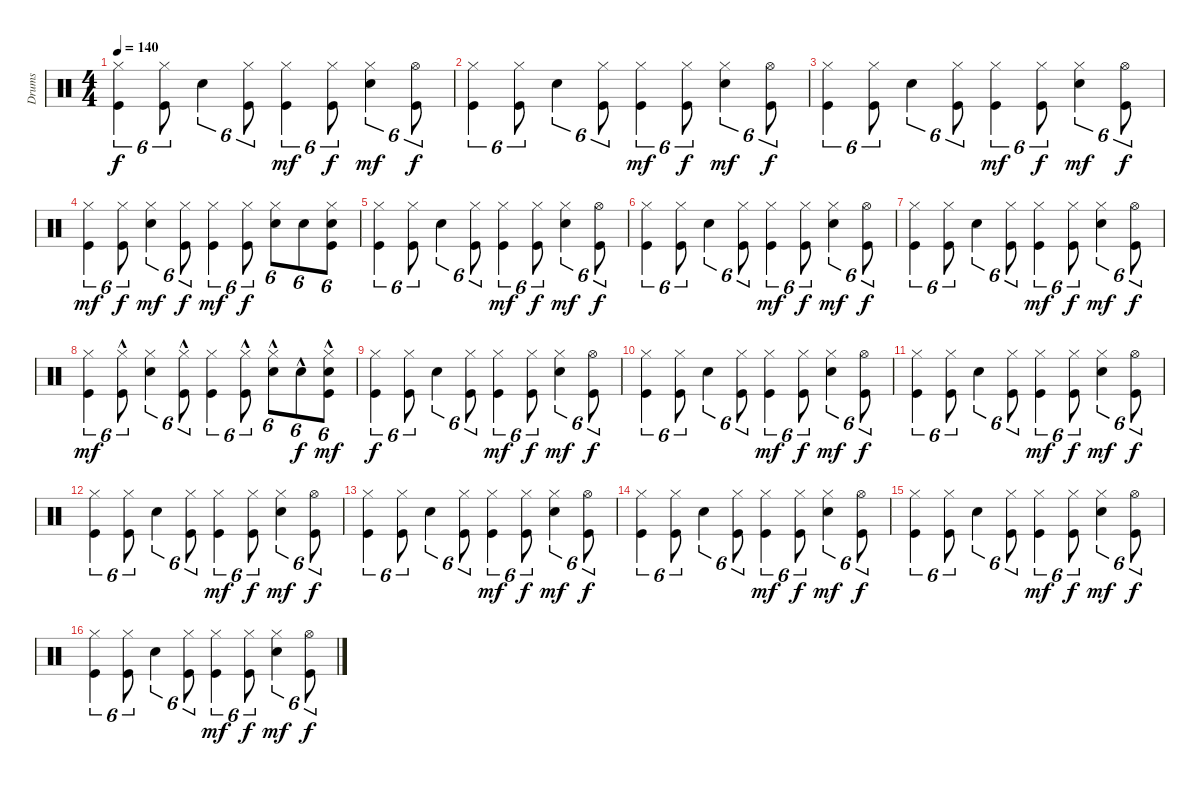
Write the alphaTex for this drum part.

\track ("Drums" "Drums") {instrument percussion}
\staff {score}
\articulation defaults
\ts (4 4)
\tempo 140
\clef neutral
\ks c
("Kick (hit)" "Hi-Hat (closed)").4{tu (6 4) dy f} ("Kick (hit)" "Hi-Hat (closed)").8{tu (6 4)} "Electric Snare (hit)".4{tu (6 4)} ("Kick (hit)" "Hi-Hat (closed)").8{tu (6 4)} ("Kick (hit)" "Hi-Hat (closed)").4{tu (6 4) dy mf} ("Kick (hit)" "Hi-Hat (closed)").8{tu (6 4) dy f} ("Electric Snare (hit)" "Hi-Hat (closed)").4{tu (6 4) dy mf} ("Kick (hit)" "Hi-Hat (open)").8{tu (6 4) dy f} |
("Kick (hit)" "Hi-Hat (closed)").4{tu (6 4)} ("Kick (hit)" "Hi-Hat (closed)").8{tu (6 4)} "Electric Snare (hit)".4{tu (6 4)} ("Kick (hit)" "Hi-Hat (closed)").8{tu (6 4)} ("Kick (hit)" "Hi-Hat (closed)").4{tu (6 4) dy mf} ("Kick (hit)" "Hi-Hat (closed)").8{tu (6 4) dy f} ("Electric Snare (hit)" "Hi-Hat (closed)").4{tu (6 4) dy mf} ("Kick (hit)" "Hi-Hat (open)").8{tu (6 4) dy f} |
("Kick (hit)" "Hi-Hat (closed)").4{tu (6 4)} ("Kick (hit)" "Hi-Hat (closed)").8{tu (6 4)} "Electric Snare (hit)".4{tu (6 4)} ("Kick (hit)" "Hi-Hat (closed)").8{tu (6 4)} ("Kick (hit)" "Hi-Hat (closed)").4{tu (6 4) dy mf} ("Kick (hit)" "Hi-Hat (closed)").8{tu (6 4) dy f} ("Electric Snare (hit)" "Hi-Hat (closed)").4{tu (6 4) dy mf} ("Kick (hit)" "Hi-Hat (open)").8{tu (6 4) dy f} |
("Kick (hit)" "Hi-Hat (closed)").4{tu (6 4) dy mf} ("Kick (hit)" "Hi-Hat (closed)").8{tu (6 4) dy f} ("Electric Snare (hit)" "Hi-Hat (closed)").4{tu (6 4) dy mf} ("Kick (hit)" "Hi-Hat (closed)").8{tu (6 4) dy f} ("Kick (hit)" "Hi-Hat (closed)").4{tu (6 4) dy mf} ("Kick (hit)" "Hi-Hat (closed)").8{tu (6 4) dy f} ("Electric Snare (hit)" "Hi-Hat (closed)").8{tu (6 4)} "Electric Snare (hit)".8{tu (6 4)} ("Kick (hit)" "Snare (hit) 2" "Hi-Hat (closed)").8{tu (6 4)} |
("Kick (hit)" "Hi-Hat (closed)").4{tu (6 4)} ("Kick (hit)" "Hi-Hat (closed)").8{tu (6 4)} "Electric Snare (hit)".4{tu (6 4)} ("Kick (hit)" "Hi-Hat (closed)").8{tu (6 4)} ("Kick (hit)" "Hi-Hat (closed)").4{tu (6 4) dy mf} ("Kick (hit)" "Hi-Hat (closed)").8{tu (6 4) dy f} ("Electric Snare (hit)" "Hi-Hat (closed)").4{tu (6 4) dy mf} ("Kick (hit)" "Hi-Hat (open)").8{tu (6 4) dy f} |
("Kick (hit)" "Hi-Hat (closed)").4{tu (6 4)} ("Kick (hit)" "Hi-Hat (closed)").8{tu (6 4)} "Electric Snare (hit)".4{tu (6 4)} ("Kick (hit)" "Hi-Hat (closed)").8{tu (6 4)} ("Kick (hit)" "Hi-Hat (closed)").4{tu (6 4) dy mf} ("Kick (hit)" "Hi-Hat (closed)").8{tu (6 4) dy f} ("Electric Snare (hit)" "Hi-Hat (closed)").4{tu (6 4) dy mf} ("Kick (hit)" "Hi-Hat (open)").8{tu (6 4) dy f} |
("Kick (hit)" "Hi-Hat (closed)").4{tu (6 4)} ("Kick (hit)" "Hi-Hat (closed)").8{tu (6 4)} "Electric Snare (hit)".4{tu (6 4)} ("Kick (hit)" "Hi-Hat (closed)").8{tu (6 4)} ("Kick (hit)" "Hi-Hat (closed)").4{tu (6 4) dy mf} ("Kick (hit)" "Hi-Hat (closed)").8{tu (6 4) dy f} ("Electric Snare (hit)" "Hi-Hat (closed)").4{tu (6 4) dy mf} ("Kick (hit)" "Hi-Hat (open)").8{tu (6 4) dy f} |
("Kick (hit)" "Hi-Hat (closed)").4{tu (6 4) dy mf} ("Kick (hit)"{hac} "Hi-Hat (closed)"{hac}).8{tu (6 4)} ("Electric Snare (hit)" "Hi-Hat (closed)").4{tu (6 4)} ("Kick (hit)"{hac} "Hi-Hat (closed)"{hac}).8{tu (6 4)} ("Kick (hit)" "Hi-Hat (closed)").4{tu (6 4)} ("Kick (hit)"{hac} "Hi-Hat (closed)"{hac}).8{tu (6 4)} ("Electric Snare (hit)"{hac} "Hi-Hat (closed)"{hac}).8{tu (6 4)} "Electric Snare (hit)"{hac}.8{tu (6 4) dy f} ("Kick (hit)"{hac} "Snare (hit) 2"{hac} "Hi-Hat (closed)"{hac}).8{tu (6 4) dy mf} |
("Kick (hit)" "Hi-Hat (closed)").4{tu (6 4) dy f} ("Kick (hit)" "Hi-Hat (closed)").8{tu (6 4)} "Electric Snare (hit)".4{tu (6 4)} ("Kick (hit)" "Hi-Hat (closed)").8{tu (6 4)} ("Kick (hit)" "Hi-Hat (closed)").4{tu (6 4) dy mf} ("Kick (hit)" "Hi-Hat (closed)").8{tu (6 4) dy f} ("Electric Snare (hit)" "Hi-Hat (closed)").4{tu (6 4) dy mf} ("Kick (hit)" "Hi-Hat (open)").8{tu (6 4) dy f} |
("Kick (hit)" "Hi-Hat (closed)").4{tu (6 4)} ("Kick (hit)" "Hi-Hat (closed)").8{tu (6 4)} "Electric Snare (hit)".4{tu (6 4)} ("Kick (hit)" "Hi-Hat (closed)").8{tu (6 4)} ("Kick (hit)" "Hi-Hat (closed)").4{tu (6 4) dy mf} ("Kick (hit)" "Hi-Hat (closed)").8{tu (6 4) dy f} ("Electric Snare (hit)" "Hi-Hat (closed)").4{tu (6 4) dy mf} ("Kick (hit)" "Hi-Hat (open)").8{tu (6 4) dy f} |
("Kick (hit)" "Hi-Hat (closed)").4{tu (6 4)} ("Kick (hit)" "Hi-Hat (closed)").8{tu (6 4)} "Electric Snare (hit)".4{tu (6 4)} ("Kick (hit)" "Hi-Hat (closed)").8{tu (6 4)} ("Kick (hit)" "Hi-Hat (closed)").4{tu (6 4) dy mf} ("Kick (hit)" "Hi-Hat (closed)").8{tu (6 4) dy f} ("Electric Snare (hit)" "Hi-Hat (closed)").4{tu (6 4) dy mf} ("Kick (hit)" "Hi-Hat (open)").8{tu (6 4) dy f} |
("Kick (hit)" "Hi-Hat (closed)").4{tu (6 4)} ("Kick (hit)" "Hi-Hat (closed)").8{tu (6 4)} "Electric Snare (hit)".4{tu (6 4)} ("Kick (hit)" "Hi-Hat (closed)").8{tu (6 4)} ("Kick (hit)" "Hi-Hat (closed)").4{tu (6 4) dy mf} ("Kick (hit)" "Hi-Hat (closed)").8{tu (6 4) dy f} ("Electric Snare (hit)" "Hi-Hat (closed)").4{tu (6 4) dy mf} ("Kick (hit)" "Hi-Hat (open)").8{tu (6 4) dy f} |
("Kick (hit)" "Hi-Hat (closed)").4{tu (6 4)} ("Kick (hit)" "Hi-Hat (closed)").8{tu (6 4)} "Electric Snare (hit)".4{tu (6 4)} ("Kick (hit)" "Hi-Hat (closed)").8{tu (6 4)} ("Kick (hit)" "Hi-Hat (closed)").4{tu (6 4) dy mf} ("Kick (hit)" "Hi-Hat (closed)").8{tu (6 4) dy f} ("Electric Snare (hit)" "Hi-Hat (closed)").4{tu (6 4) dy mf} ("Kick (hit)" "Hi-Hat (open)").8{tu (6 4) dy f} |
("Kick (hit)" "Hi-Hat (closed)").4{tu (6 4)} ("Kick (hit)" "Hi-Hat (closed)").8{tu (6 4)} "Electric Snare (hit)".4{tu (6 4)} ("Kick (hit)" "Hi-Hat (closed)").8{tu (6 4)} ("Kick (hit)" "Hi-Hat (closed)").4{tu (6 4) dy mf} ("Kick (hit)" "Hi-Hat (closed)").8{tu (6 4) dy f} ("Electric Snare (hit)" "Hi-Hat (closed)").4{tu (6 4) dy mf} ("Kick (hit)" "Hi-Hat (open)").8{tu (6 4) dy f} |
("Kick (hit)" "Hi-Hat (closed)").4{tu (6 4)} ("Kick (hit)" "Hi-Hat (closed)").8{tu (6 4)} "Electric Snare (hit)".4{tu (6 4)} ("Kick (hit)" "Hi-Hat (closed)").8{tu (6 4)} ("Kick (hit)" "Hi-Hat (closed)").4{tu (6 4) dy mf} ("Kick (hit)" "Hi-Hat (closed)").8{tu (6 4) dy f} ("Electric Snare (hit)" "Hi-Hat (closed)").4{tu (6 4) dy mf} ("Kick (hit)" "Hi-Hat (open)").8{tu (6 4) dy f} |
("Kick (hit)" "Hi-Hat (closed)").4{tu (6 4)} ("Kick (hit)" "Hi-Hat (closed)").8{tu (6 4)} "Electric Snare (hit)".4{tu (6 4)} ("Kick (hit)" "Hi-Hat (closed)").8{tu (6 4)} ("Kick (hit)" "Hi-Hat (closed)").4{tu (6 4) dy mf} ("Kick (hit)" "Hi-Hat (closed)").8{tu (6 4) dy f} ("Electric Snare (hit)" "Hi-Hat (closed)").4{tu (6 4) dy mf} ("Kick (hit)" "Hi-Hat (open)").8{tu (6 4) dy f}
